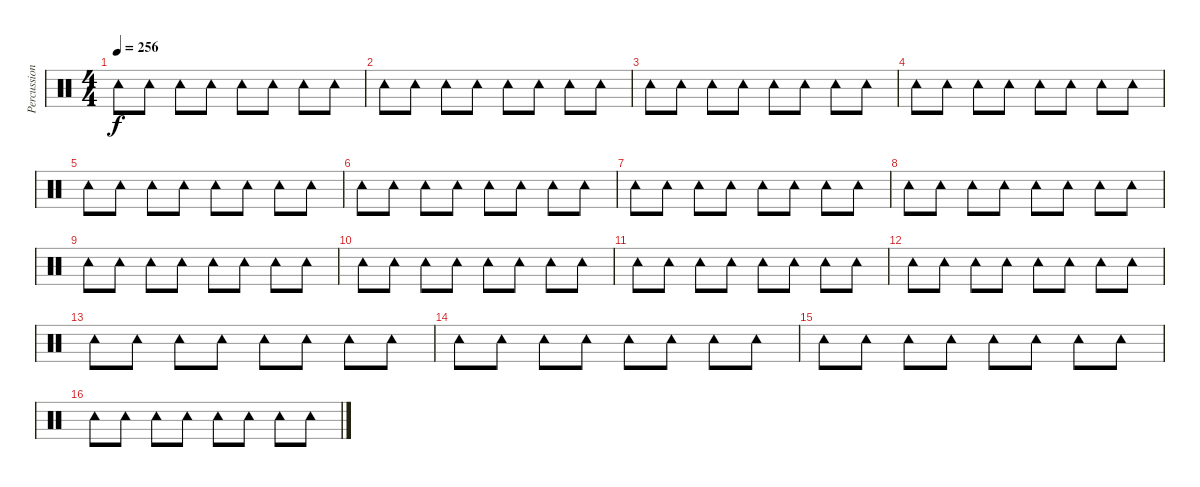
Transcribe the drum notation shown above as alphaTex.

\track ("Percussions" "Percussion") {instrument percussion}
\staff {score}
\articulation defaults
\ts (4 4)
\tempo 256
\clef neutral
\ks c "Tambourine (hit)".8{dy f} "Tambourine (hit)".8 "Tambourine (hit)".8 "Tambourine (hit)".8 "Tambourine (hit)".8 "Tambourine (hit)".8 "Tambourine (hit)".8 "Tambourine (hit)".8
|
"Tambourine (hit)".8 "Tambourine (hit)".8 "Tambourine (hit)".8 "Tambourine (hit)".8 "Tambourine (hit)".8 "Tambourine (hit)".8 "Tambourine (hit)".8 "Tambourine (hit)".8 |
"Tambourine (hit)".8 "Tambourine (hit)".8 "Tambourine (hit)".8 "Tambourine (hit)".8 "Tambourine (hit)".8 "Tambourine (hit)".8 "Tambourine (hit)".8 "Tambourine (hit)".8 |
"Tambourine (hit)".8 "Tambourine (hit)".8 "Tambourine (hit)".8 "Tambourine (hit)".8 "Tambourine (hit)".8 "Tambourine (hit)".8 "Tambourine (hit)".8 "Tambourine (hit)".8 |
"Tambourine (hit)".8 "Tambourine (hit)".8 "Tambourine (hit)".8 "Tambourine (hit)".8 "Tambourine (hit)".8 "Tambourine (hit)".8 "Tambourine (hit)".8 "Tambourine (hit)".8 |
"Tambourine (hit)".8 "Tambourine (hit)".8 "Tambourine (hit)".8 "Tambourine (hit)".8 "Tambourine (hit)".8 "Tambourine (hit)".8 "Tambourine (hit)".8 "Tambourine (hit)".8 |
"Tambourine (hit)".8 "Tambourine (hit)".8 "Tambourine (hit)".8 "Tambourine (hit)".8 "Tambourine (hit)".8 "Tambourine (hit)".8 "Tambourine (hit)".8 "Tambourine (hit)".8 |
"Tambourine (hit)".8 "Tambourine (hit)".8 "Tambourine (hit)".8 "Tambourine (hit)".8 "Tambourine (hit)".8 "Tambourine (hit)".8 "Tambourine (hit)".8 "Tambourine (hit)".8 |
"Tambourine (hit)".8 "Tambourine (hit)".8 "Tambourine (hit)".8 "Tambourine (hit)".8 "Tambourine (hit)".8 "Tambourine (hit)".8 "Tambourine (hit)".8 "Tambourine (hit)".8 |
"Tambourine (hit)".8 "Tambourine (hit)".8 "Tambourine (hit)".8 "Tambourine (hit)".8 "Tambourine (hit)".8 "Tambourine (hit)".8 "Tambourine (hit)".8 "Tambourine (hit)".8 |
"Tambourine (hit)".8 "Tambourine (hit)".8 "Tambourine (hit)".8 "Tambourine (hit)".8 "Tambourine (hit)".8 "Tambourine (hit)".8 "Tambourine (hit)".8 "Tambourine (hit)".8 |
"Tambourine (hit)".8 "Tambourine (hit)".8 "Tambourine (hit)".8 "Tambourine (hit)".8 "Tambourine (hit)".8 "Tambourine (hit)".8 "Tambourine (hit)".8 "Tambourine (hit)".8 |
"Tambourine (hit)".8 "Tambourine (hit)".8 "Tambourine (hit)".8 "Tambourine (hit)".8 "Tambourine (hit)".8 "Tambourine (hit)".8 "Tambourine (hit)".8 "Tambourine (hit)".8 |
"Tambourine (hit)".8 "Tambourine (hit)".8 "Tambourine (hit)".8 "Tambourine (hit)".8 "Tambourine (hit)".8 "Tambourine (hit)".8 "Tambourine (hit)".8 "Tambourine (hit)".8 |
"Tambourine (hit)".8 "Tambourine (hit)".8 "Tambourine (hit)".8 "Tambourine (hit)".8 "Tambourine (hit)".8 "Tambourine (hit)".8 "Tambourine (hit)".8 "Tambourine (hit)".8 |
"Tambourine (hit)".8 "Tambourine (hit)".8 "Tambourine (hit)".8 "Tambourine (hit)".8 "Tambourine (hit)".8 "Tambourine (hit)".8 "Tambourine (hit)".8 "Tambourine (hit)".8
